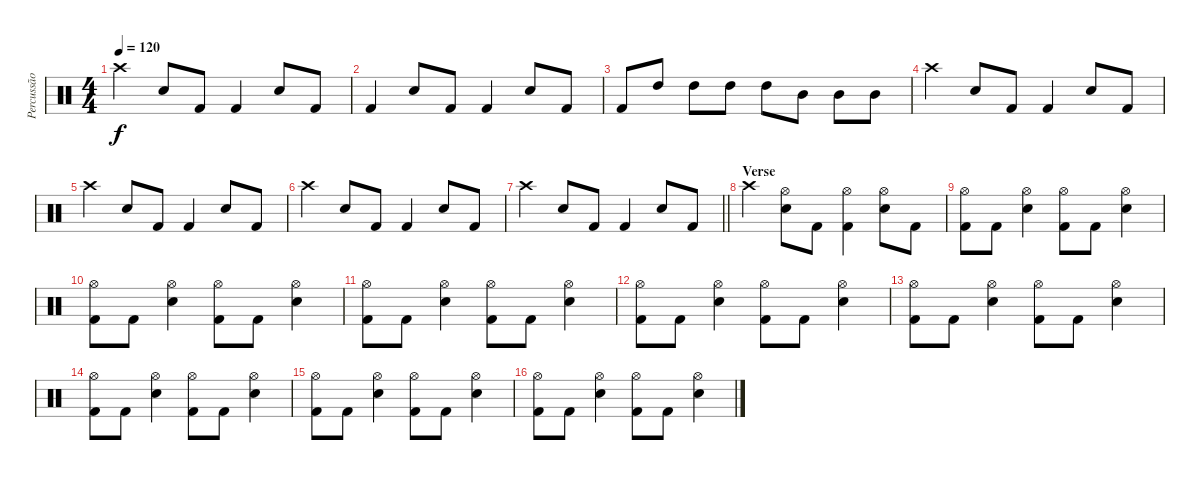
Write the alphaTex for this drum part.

\track ("Percussão" "Percussão") {instrument percussion}
\staff {score}
\articulation defaults
\ts (4 4)
\tempo 120
\clef neutral
\ks c "Crash high (hit)".4{dy f} "Snare (hit) 2".8 "Kick (hit) 2".8 "Kick (hit) 2".4 "Snare (hit) 2".8 "Kick (hit) 2".8
|
"Kick (hit) 2".4 "Snare (hit) 2".8 "Kick (hit) 2".8 "Kick (hit) 2".4 "Snare (hit) 2".8 "Kick (hit) 2".8 |
"Kick (hit) 2".8 "High Tom (hit)".8 "High Tom (hit)".8 "High Tom (hit)".8 "High Tom (hit)".8 "Mid Tom (hit)".8 "Mid Tom (hit)".8 "Mid Tom (hit)".8 |
"Crash high (hit)".4 "Snare (hit) 2".8 "Kick (hit) 2".8 "Kick (hit) 2".4 "Snare (hit) 2".8 "Kick (hit) 2".8 |
"Crash high (hit)".4 "Snare (hit) 2".8 "Kick (hit) 2".8 "Kick (hit) 2".4 "Snare (hit) 2".8 "Kick (hit) 2".8 |
"Crash high (hit)".4 "Snare (hit) 2".8 "Kick (hit) 2".8 "Kick (hit) 2".4 "Snare (hit) 2".8 "Kick (hit) 2".8 |
\barLineRight lightlight "Crash high (hit)".4 "Snare (hit) 2".8 "Kick (hit) 2".8 "Kick (hit) 2".4 "Snare (hit) 2".8 "Kick (hit) 2".8
|
\section ("" "Verse")
"Crash high (hit)".4 ("Hi-Hat (open)" "Snare (hit) 2").8 "Kick (hit) 2".8 ("Hi-Hat (open)" "Kick (hit) 2").4 ("Hi-Hat (open)" "Snare (hit) 2").8 "Kick (hit) 2".8 |
("Hi-Hat (open)" "Kick (hit) 2").8 "Kick (hit) 2".8 ("Hi-Hat (open)" "Snare (hit) 2").4 ("Hi-Hat (open)" "Kick (hit) 2").8 "Kick (hit) 2".8 ("Hi-Hat (open)" "Snare (hit) 2").4 |
("Hi-Hat (open)" "Kick (hit) 2").8 "Kick (hit) 2".8 ("Hi-Hat (open)" "Snare (hit) 2").4 ("Hi-Hat (open)" "Kick (hit) 2").8 "Kick (hit) 2".8 ("Hi-Hat (open)" "Snare (hit) 2").4 |
("Hi-Hat (open)" "Kick (hit) 2").8 "Kick (hit) 2".8 ("Hi-Hat (open)" "Snare (hit) 2").4 ("Hi-Hat (open)" "Kick (hit) 2").8 "Kick (hit) 2".8 ("Hi-Hat (open)" "Snare (hit) 2").4 |
("Hi-Hat (open)" "Kick (hit) 2").8 "Kick (hit) 2".8 ("Hi-Hat (open)" "Snare (hit) 2").4 ("Hi-Hat (open)" "Kick (hit) 2").8 "Kick (hit) 2".8 ("Hi-Hat (open)" "Snare (hit) 2").4 |
("Hi-Hat (open)" "Kick (hit) 2").8 "Kick (hit) 2".8 ("Hi-Hat (open)" "Snare (hit) 2").4 ("Hi-Hat (open)" "Kick (hit) 2").8 "Kick (hit) 2".8 ("Hi-Hat (open)" "Snare (hit) 2").4 |
("Hi-Hat (open)" "Kick (hit) 2").8 "Kick (hit) 2".8 ("Hi-Hat (open)" "Snare (hit) 2").4 ("Hi-Hat (open)" "Kick (hit) 2").8 "Kick (hit) 2".8 ("Hi-Hat (open)" "Snare (hit) 2").4 |
("Hi-Hat (open)" "Kick (hit) 2").8 "Kick (hit) 2".8 ("Hi-Hat (open)" "Snare (hit) 2").4 ("Hi-Hat (open)" "Kick (hit) 2").8 "Kick (hit) 2".8 ("Hi-Hat (open)" "Snare (hit) 2").4 |
("Hi-Hat (open)" "Kick (hit) 2").8 "Kick (hit) 2".8 ("Hi-Hat (open)" "Snare (hit) 2").4 ("Hi-Hat (open)" "Kick (hit) 2").8 "Kick (hit) 2".8 ("Hi-Hat (open)" "Snare (hit) 2").4
